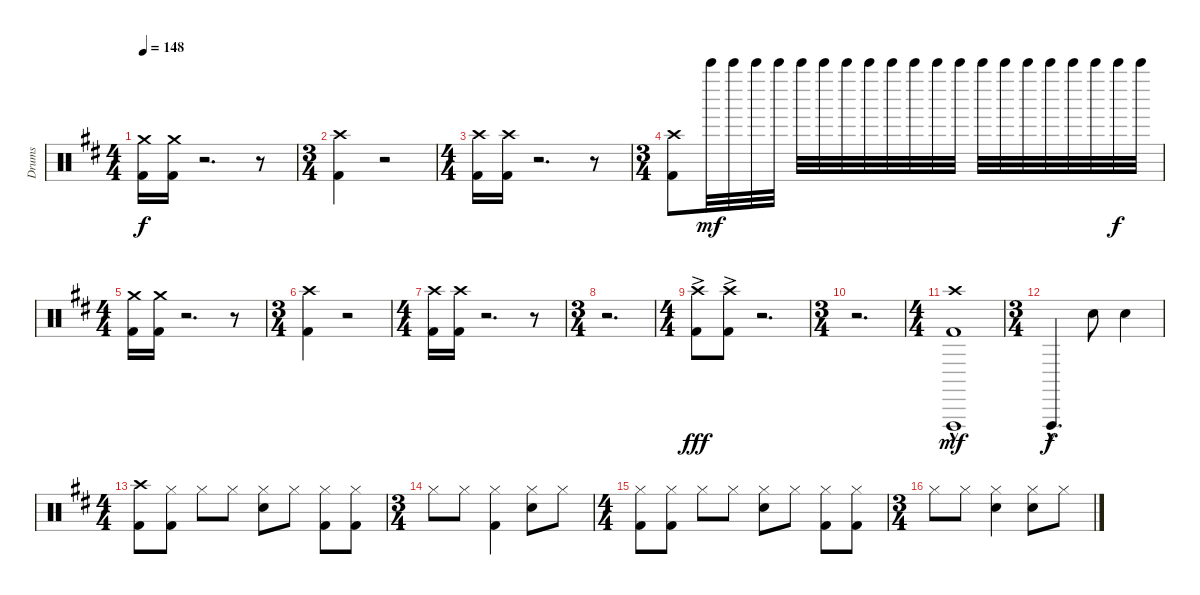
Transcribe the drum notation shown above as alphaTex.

\track ("Drums" "Drums") {instrument percussion}
\staff {score}
\articulation defaults
\ts (4 4)
\tempo 148
\clef neutral
\ks d
("Kick (hit) 2" "Crash medium (hit)").16{dy f} ("Kick (hit) 2" "Crash medium (hit)").16 r.2{d} r.8 |
\ts (3 4)
("Kick (hit) 2" "Crash high (hit)").4{volume 12} r.2 |
\ts (4 4)
("Kick (hit) 2" "Crash high (hit)").16 ("Kick (hit) 2" "Crash high (hit)").16 r.2{d} r.8 |
\ts (3 4)
("Kick (hit) 2" "Crash high (hit)").8{volume 12} "Bell Tree (hit)".32{dy mf} "Bell Tree (hit)".32 "Bell Tree (hit)".32 "Bell Tree (hit)".32 "Bell Tree (hit)".32 "Bell Tree (hit)".32 "Bell Tree (hit)".32 "Bell Tree (hit)".32 "Bell Tree (hit)".32 "Bell Tree (hit)".32 "Bell Tree (hit)".32 "Bell Tree (hit)".32 "Bell Tree (hit)".32 "Bell Tree (hit)".32 "Bell Tree (hit)".32 "Bell Tree (hit)".32 "Bell Tree (hit)".32 "Bell Tree (hit)".32 "Bell Tree (hit)".32{dy f} "Bell Tree (hit)".32 |
\ts (4 4)
("Kick (hit) 2" "Crash medium (hit)").16 ("Kick (hit) 2" "Crash medium (hit)").16 r.2{d} r.8 |
\ts (3 4)
("Kick (hit) 2" "Crash high (hit)").4{volume 12} r.2 |
\ts (4 4)
("Kick (hit) 2" "Crash high (hit)").16 ("Kick (hit) 2" "Crash high (hit)").16 r.2{d} r.8 |
\ts (3 4)
r.2{d} |
\ts (4 4)
("Kick (hit) 2"{ac} "Crash high (hit)").8{dy fff} ("Kick (hit) 2"{ac} "Crash high (hit)").8 r.2{d} |
\ts (3 4)
r.2{d} |
\ts (4 4)
("Kick (hit) 2"{hac} "Crash high (hit)" "Vibraslap (hit)").1{dy mf} |
\ts (3 4)
"Vibraslap (hit)"{hac}.4{d dy f} "Electric Snare (hit)".8 "Electric Snare (hit)".4 |
\ts (4 4)
("Kick (hit) 2" "Crash high (hit)").8 ("Kick (hit) 2" "Hi-Hat (closed)").8 "Hi-Hat (closed)".8 "Hi-Hat (closed)".8 ("Electric Snare (hit)" "Hi-Hat (closed)").8 "Hi-Hat (closed)".8 ("Kick (hit) 2" "Hi-Hat (closed)").8 ("Kick (hit) 2" "Hi-Hat (closed)").8 |
\ts (3 4)
"Hi-Hat (closed)".8 "Hi-Hat (closed)".8 ("Kick (hit) 2" "Hi-Hat (closed)").4 ("Electric Snare (hit)" "Hi-Hat (closed)").8 "Hi-Hat (closed)".8 |
\ts (4 4)
("Kick (hit) 2" "Hi-Hat (closed)").8 ("Kick (hit) 2" "Hi-Hat (closed)").8 "Hi-Hat (closed)".8 "Hi-Hat (closed)".8 ("Electric Snare (hit)" "Hi-Hat (closed)").8 "Hi-Hat (closed)".8 ("Kick (hit) 2" "Hi-Hat (closed)").8 ("Kick (hit) 2" "Hi-Hat (closed)").8 |
\ts (3 4)
"Hi-Hat (closed)".8 "Hi-Hat (closed)".8 ("Electric Snare (hit)" "Hi-Hat (closed)").4 ("Snare (hit) 2" "Hi-Hat (closed)").8 "Hi-Hat (closed)".8
